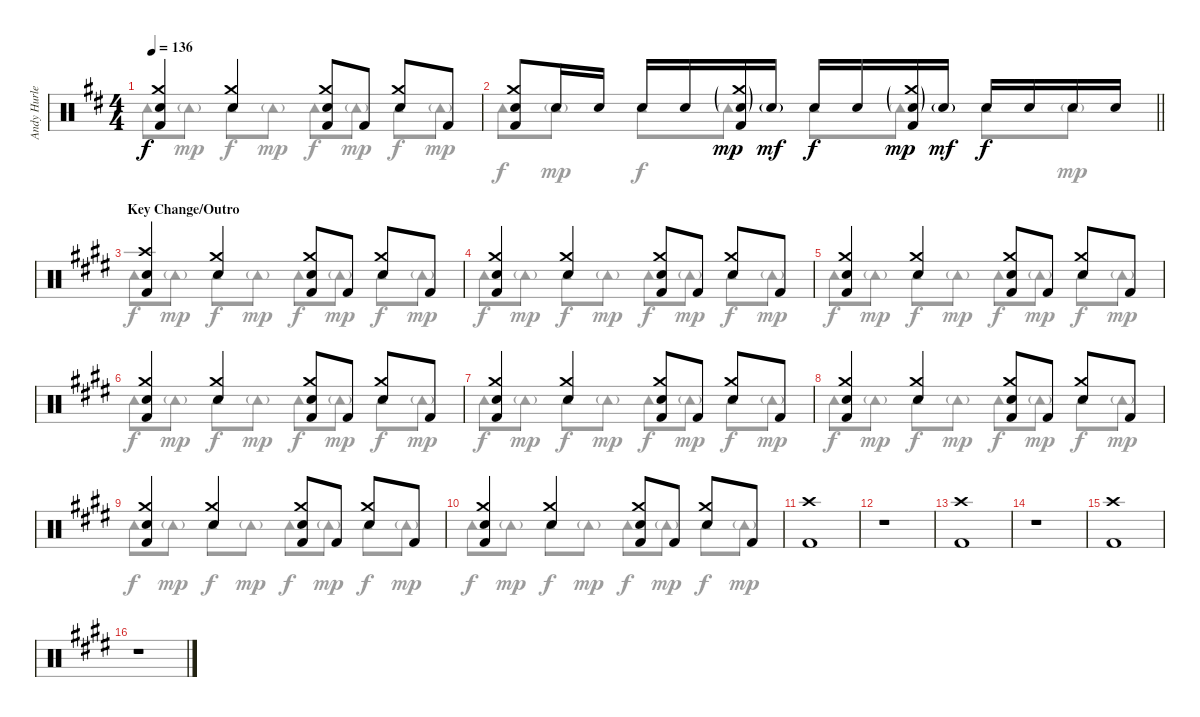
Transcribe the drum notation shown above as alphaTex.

\track ("Andy Hurley" "Andy Hurle") {instrument percussion}
\staff {score}
\articulation defaults
\voice
\ts (4 4)
\tempo 136
\clef neutral
\ks d
("Crash medium (hit)" "Snare (hit) 2" "Kick (hit) 2").4{dy f} ("Crash medium (hit)" "Snare (hit) 2").4 ("Crash medium (hit)" "Snare (hit) 2" "Kick (hit) 2").8 "Kick (hit) 2".8 ("Crash medium (hit)" "Snare (hit) 2").8 "Kick (hit) 2".8 |
\barLineRight lightlight
("Crash medium (hit)" "Snare (hit) 2" "Kick (hit) 2").8 "Snare (hit) 2".16 "Snare (hit) 2".16 "Snare (hit) 2".16 "Snare (hit) 2".16 ("Crash medium (hit)"{g} "Snare (hit) 2"{g} "Kick (hit) 2").16{dy mp} "Snare (hit) 2"{g}.16{dy mf} "Snare (hit) 2".16{dy f} "Snare (hit) 2".16 ("Crash medium (hit)"{g} "Snare (hit) 2"{g} "Kick (hit) 2").16{dy mp} "Snare (hit) 2"{g}.16{dy mf} "Snare (hit) 2".16{dy f} "Snare (hit) 2".16 "Snare (hit) 2".16 "Snare (hit) 2".16 |
\section ("" "Key Change/Outro")
\ks e
("Crash high (hit)" "Snare (hit) 2" "Kick (hit) 2").4 ("Crash medium (hit)" "Snare (hit) 2").4 ("Crash medium (hit)" "Snare (hit) 2" "Kick (hit) 2").8 "Kick (hit) 2".8 ("Crash medium (hit)" "Snare (hit) 2").8 "Kick (hit) 2".8 |
("Crash medium (hit)" "Snare (hit) 2" "Kick (hit) 2").4 ("Crash medium (hit)" "Snare (hit) 2").4 ("Crash medium (hit)" "Snare (hit) 2" "Kick (hit) 2").8 "Kick (hit) 2".8 ("Crash medium (hit)" "Snare (hit) 2").8 "Kick (hit) 2".8 |
("Crash medium (hit)" "Snare (hit) 2" "Kick (hit) 2").4 ("Crash medium (hit)" "Snare (hit) 2").4 ("Crash medium (hit)" "Snare (hit) 2" "Kick (hit) 2").8 "Kick (hit) 2".8 ("Crash medium (hit)" "Snare (hit) 2").8 "Kick (hit) 2".8 |
("Crash medium (hit)" "Snare (hit) 2" "Kick (hit) 2").4 ("Crash medium (hit)" "Snare (hit) 2").4 ("Crash medium (hit)" "Snare (hit) 2" "Kick (hit) 2").8 "Kick (hit) 2".8 ("Crash medium (hit)" "Snare (hit) 2").8 "Kick (hit) 2".8 |
("Crash medium (hit)" "Snare (hit) 2" "Kick (hit) 2").4 ("Crash medium (hit)" "Snare (hit) 2").4 ("Crash medium (hit)" "Snare (hit) 2" "Kick (hit) 2").8 "Kick (hit) 2".8 ("Crash medium (hit)" "Snare (hit) 2").8 "Kick (hit) 2".8 |
("Crash medium (hit)" "Snare (hit) 2" "Kick (hit) 2").4 ("Crash medium (hit)" "Snare (hit) 2").4 ("Crash medium (hit)" "Snare (hit) 2" "Kick (hit) 2").8 "Kick (hit) 2".8 ("Crash medium (hit)" "Snare (hit) 2").8 "Kick (hit) 2".8 |
("Crash medium (hit)" "Snare (hit) 2" "Kick (hit) 2").4 ("Crash medium (hit)" "Snare (hit) 2").4 ("Crash medium (hit)" "Snare (hit) 2" "Kick (hit) 2").8 "Kick (hit) 2".8 ("Crash medium (hit)" "Snare (hit) 2").8 "Kick (hit) 2".8 |
("Crash medium (hit)" "Snare (hit) 2" "Kick (hit) 2").4 ("Crash medium (hit)" "Snare (hit) 2").4 ("Crash medium (hit)" "Snare (hit) 2" "Kick (hit) 2").8 "Kick (hit) 2".8 ("Crash medium (hit)" "Snare (hit) 2").8 "Kick (hit) 2".8 |
("Crash high (hit)" "Kick (hit) 2").1 |
r.1 |
("Crash high (hit)" "Kick (hit) 2").1 |
r.1 |
("Crash high (hit)" "Kick (hit) 2").1 |
r.1
\voice
\clef neutral
\ottava regular
\simile none
\ks d "Tambourine (hit)".8{dy f} "Tambourine (hit)"{g}.8{dy mp} "Tambourine (hit)".8{dy f} "Tambourine (hit)"{g}.8{dy mp} "Tambourine (hit)".8{dy f} "Tambourine (hit)"{g}.8{dy mp} "Tambourine (hit)".8{dy f} "Tambourine (hit)"{g}.8{dy mp}
|
\barLineRight lightlight "Tambourine (hit)".8{dy f} "Tambourine (hit)"{g}.8{dy mp} "Tambourine (hit)".8{dy f} "Tambourine (hit)"{g}.8{dy mp} "Tambourine (hit)".8{dy f} "Tambourine (hit)"{g}.8{dy mp} "Tambourine (hit)".8{dy f} "Tambourine (hit)"{g}.8{dy mp}
|
\ks e "Tambourine (hit)".8{dy f} "Tambourine (hit)"{g}.8{dy mp} "Tambourine (hit)".8{dy f} "Tambourine (hit)"{g}.8{dy mp} "Tambourine (hit)".8{dy f} "Tambourine (hit)"{g}.8{dy mp} "Tambourine (hit)".8{dy f} "Tambourine (hit)"{g}.8{dy mp}
|
"Tambourine (hit)".8{dy f} "Tambourine (hit)"{g}.8{dy mp} "Tambourine (hit)".8{dy f} "Tambourine (hit)"{g}.8{dy mp} "Tambourine (hit)".8{dy f} "Tambourine (hit)"{g}.8{dy mp} "Tambourine (hit)".8{dy f} "Tambourine (hit)"{g}.8{dy mp} |
"Tambourine (hit)".8{dy f} "Tambourine (hit)"{g}.8{dy mp} "Tambourine (hit)".8{dy f} "Tambourine (hit)"{g}.8{dy mp} "Tambourine (hit)".8{dy f} "Tambourine (hit)"{g}.8{dy mp} "Tambourine (hit)".8{dy f} "Tambourine (hit)"{g}.8{dy mp} |
"Tambourine (hit)".8{dy f} "Tambourine (hit)"{g}.8{dy mp} "Tambourine (hit)".8{dy f} "Tambourine (hit)"{g}.8{dy mp} "Tambourine (hit)".8{dy f} "Tambourine (hit)"{g}.8{dy mp} "Tambourine (hit)".8{dy f} "Tambourine (hit)"{g}.8{dy mp} |
"Tambourine (hit)".8{dy f} "Tambourine (hit)"{g}.8{dy mp} "Tambourine (hit)".8{dy f} "Tambourine (hit)"{g}.8{dy mp} "Tambourine (hit)".8{dy f} "Tambourine (hit)"{g}.8{dy mp} "Tambourine (hit)".8{dy f} "Tambourine (hit)"{g}.8{dy mp} |
"Tambourine (hit)".8{dy f} "Tambourine (hit)"{g}.8{dy mp} "Tambourine (hit)".8{dy f} "Tambourine (hit)"{g}.8{dy mp} "Tambourine (hit)".8{dy f} "Tambourine (hit)"{g}.8{dy mp} "Tambourine (hit)".8{dy f} "Tambourine (hit)"{g}.8{dy mp} |
"Tambourine (hit)".8{dy f} "Tambourine (hit)"{g}.8{dy mp} "Tambourine (hit)".8{dy f} "Tambourine (hit)"{g}.8{dy mp} "Tambourine (hit)".8{dy f} "Tambourine (hit)"{g}.8{dy mp} "Tambourine (hit)".8{dy f} "Tambourine (hit)"{g}.8{dy mp} |
"Tambourine (hit)".8{dy f} "Tambourine (hit)"{g}.8{dy mp} "Tambourine (hit)".8{dy f} "Tambourine (hit)"{g}.8{dy mp} "Tambourine (hit)".8{dy f} "Tambourine (hit)"{g}.8{dy mp} "Tambourine (hit)".8{dy f} "Tambourine (hit)"{g}.8{dy mp} |
|
|
|
|
|
